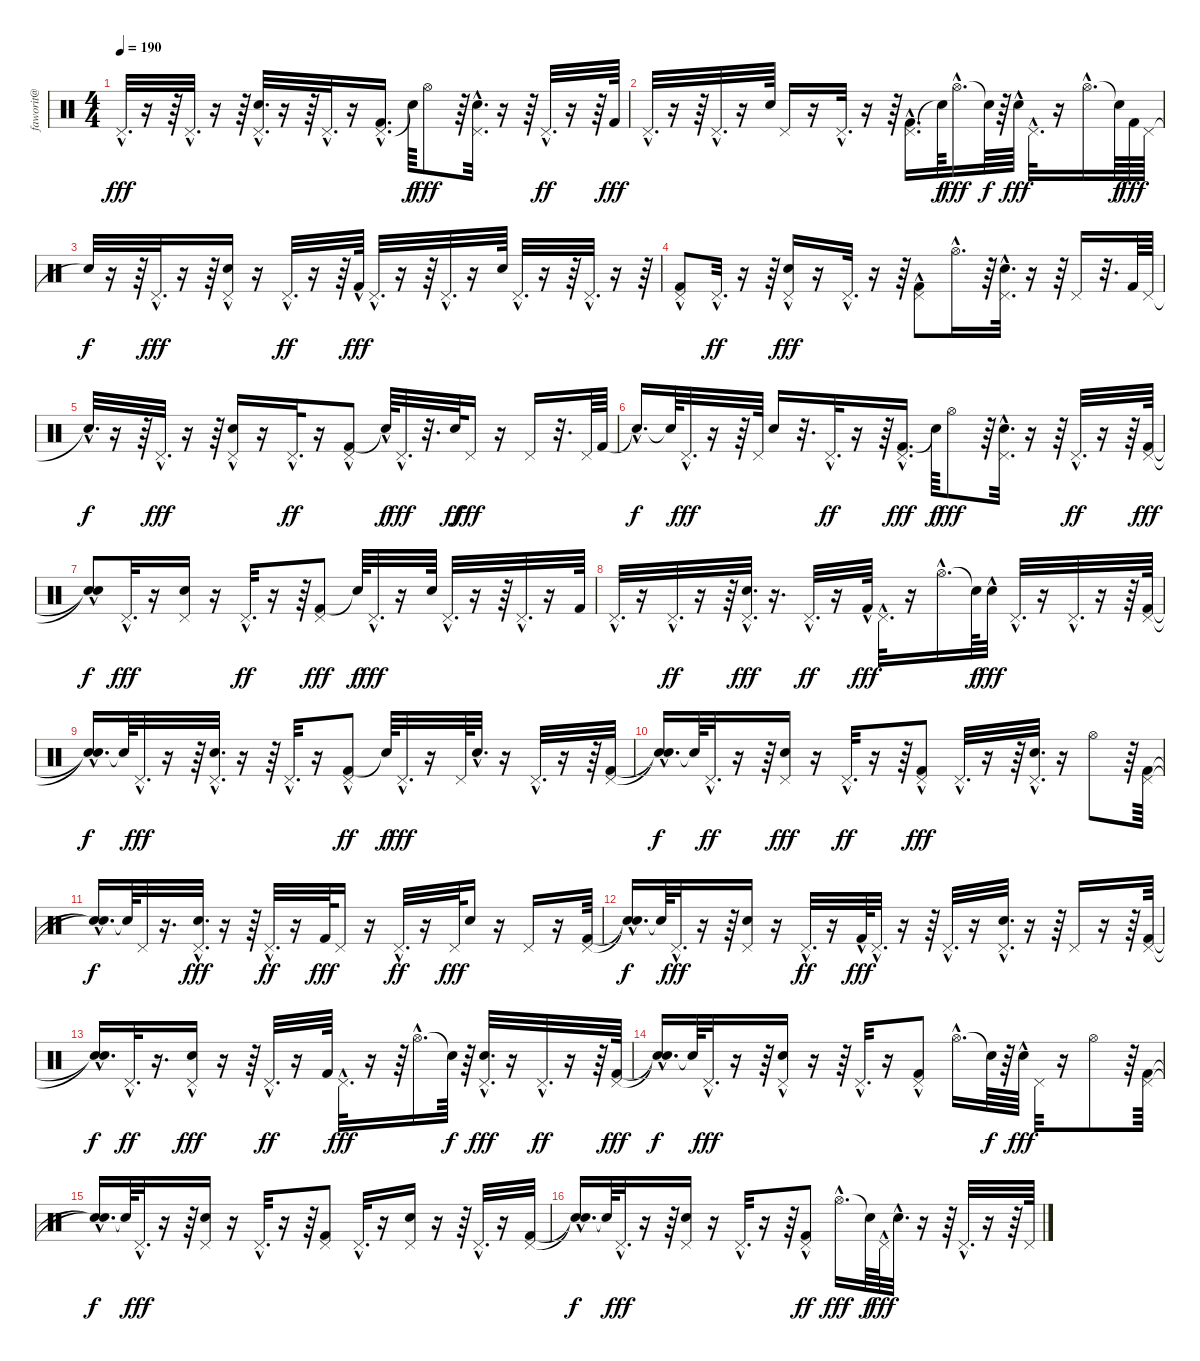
\track ("faworit@" "faworit@") {instrument percussion}
\staff {score}
\articulation defaults
\ts (4 4)
\tempo 190
\clef neutral
\ks c "Pedal Hi-Hat (hit)"{hac}.32{d dy fff}
r.16 r.64 "Pedal Hi-Hat (hit)"{hac}.32{d} r.16 r.64 ("Snare (hit) 2"{hac} "Pedal Hi-Hat (hit)"{hac}).32{d} r.16 r.64 "Pedal Hi-Hat (hit)"{hac}.32{d} r.16 ("Pedal Hi-Hat (hit)"{hac} "Kick (hit) 2"{hac}).16{d} "Snare (hit)"{t}.64{dy f} "Hi-Hat (open)".8{dy fff} r.64 ("Pedal Hi-Hat (hit)"{hac} "Snare (hit) 2"{hac}).32{d} r.16 r.64 "Pedal Hi-Hat (hit)"{hac}.32{d dy ff} r.16 r.64 "Kick (hit) 2".64{dy fff} |
"Pedal Hi-Hat (hit)"{hac}.32{d} r.16 r.64 "Pedal Hi-Hat (hit)"{hac}.32{d} r.16 "Snare (hit) 2".64 "Pedal Hi-Hat (hit)".16 r.16 "Pedal Hi-Hat (hit)"{hac}.32{d} r.16 r.64 ("Pedal Hi-Hat (hit)"{hac} "Kick (hit) 2"{hac}).16{d} "Snare (hit)"{t}.64{dy f} "Hi-Hat (open)"{hac}.16{d dy fff} "Snare (hit)"{t}.64{dy f} r.64 "Snare (hit) 2"{hac}.64{dy fff} "Pedal Hi-Hat (hit)"{hac}.32{d} r.16 "Hi-Hat (open)"{hac}.16{d} "Snare (hit)"{t}.64{dy f} "Kick (hit) 2".64{dy fff} "Pedal Hi-Hat (hit)".64 |
"Snare (hit)"{t}.32{dy f} r.16 r.64 "Pedal Hi-Hat (hit)"{hac}.32{d dy fff} r.16 r.64 ("Snare (hit) 2" "Pedal Hi-Hat (hit)"{hac}).16 r.16 "Pedal Hi-Hat (hit)"{hac}.32{d dy ff} r.16 r.64 "Kick (hit) 2"{hac}.64{dy fff} "Pedal Hi-Hat (hit)"{hac}.32{d} r.16 r.64 "Pedal Hi-Hat (hit)"{hac}.32{d} r.16 "Snare (hit) 2".64 "Pedal Hi-Hat (hit)"{hac}.32{d} r.16 r.64 "Pedal Hi-Hat (hit)"{hac}.32{d} r.16 r.64 |
("Kick (hit) 2" "Pedal Hi-Hat (hit)"{hac}).8 "Pedal Hi-Hat (hit)"{hac}.32{d dy ff} r.16 r.64 ("Snare (hit) 2" "Pedal Hi-Hat (hit)"{hac}).16{dy fff} r.16 "Pedal Hi-Hat (hit)"{hac}.32{d} r.16 r.64 ("Kick (hit) 2"{hac} "Pedal Hi-Hat (hit)"{hac}).8 "Hi-Hat (open)"{hac}.16{d} r.64 ("Pedal Hi-Hat (hit)"{hac} "Snare (hit) 2"{hac}).32{d} r.16 r.64 "Pedal Hi-Hat (hit)".16 r.32{d} "Kick (hit) 2".64 "Pedal Hi-Hat (hit)".64 |
"Snare (hit)"{hac t}.32{d dy f} r.16 r.64 "Pedal Hi-Hat (hit)"{hac}.32{d dy fff} r.16 r.64 ("Snare (hit) 2"{hac} "Pedal Hi-Hat (hit)").16 r.16 "Pedal Hi-Hat (hit)"{hac}.32{d dy ff} r.16 ("Kick (hit) 2" "Pedal Hi-Hat (hit)"{hac}).8 "Snare (hit)"{hac t}.64{dy f} "Pedal Hi-Hat (hit)"{hac}.32{d dy fff} r.32{d} "Snare (hit) 2".64{dy ff} "Pedal Hi-Hat (hit)".16{dy fff} r.16 "Pedal Hi-Hat (hit)".16 r.32{d} "Pedal Hi-Hat (hit)".64 "Kick (hit) 2".64 |
"Snare (hit)"{hac t}.16{d dy f} "Snare (hit)"{t}.64 "Pedal Hi-Hat (hit)"{hac}.32{d dy fff} r.16 r.64 "Pedal Hi-Hat (hit)".64 "Snare (hit) 2".16 r.32{d} "Pedal Hi-Hat (hit)"{hac}.32{d dy ff} r.16 r.64 ("Kick (hit) 2"{hac} "Pedal Hi-Hat (hit)"{hac}).16{d dy fff} "Snare (hit)"{t}.64{dy f} "Hi-Hat (open)".8{dy fff} r.64 ("Snare (hit) 2"{hac} "Pedal Hi-Hat (hit)"{hac}).32{d} r.16 r.64 "Pedal Hi-Hat (hit)"{hac}.32{d dy ff} r.16 r.64 ("Kick (hit) 2" "Pedal Hi-Hat (hit)").64{dy fff} |
("Snare (hit)"{hac t} "Snare (hit)"{hac t}).8{dy f} "Pedal Hi-Hat (hit)"{hac}.32{d dy fff} r.16 ("Snare (hit) 2" "Pedal Hi-Hat (hit)").16 r.16 "Pedal Hi-Hat (hit)"{hac}.32{d dy ff} r.16 r.64 ("Kick (hit) 2" "Pedal Hi-Hat (hit)").8{dy fff} "Snare (hit)"{t}.64{dy f} "Pedal Hi-Hat (hit)"{hac}.32{d dy fff} r.16 "Snare (hit) 2".64 "Pedal Hi-Hat (hit)"{hac}.32{d} r.16 r.64 "Pedal Hi-Hat (hit)"{hac}.32{d} r.16 "Kick (hit) 2".64 |
"Pedal Hi-Hat (hit)"{hac}.32{d} r.16 "Pedal Hi-Hat (hit)"{hac}.32{d dy ff} r.16 r.64 ("Pedal Hi-Hat (hit)"{hac} "Snare (hit) 2"{hac}).32{d dy fff} r.16{d} "Pedal Hi-Hat (hit)"{hac}.32{d dy ff} r.16 "Kick (hit) 2"{hac}.64{dy fff} "Pedal Hi-Hat (hit)"{hac}.32{d} r.16 "Hi-Hat (open)"{hac}.16{d} "Snare (hit)"{t}.64{dy f} "Snare (hit) 2"{hac}.32{dy fff} "Pedal Hi-Hat (hit)"{hac}.32{d} r.16 "Pedal Hi-Hat (hit)"{hac}.32{d} r.16 r.64 ("Pedal Hi-Hat (hit)" "Kick (hit) 2").64 |
("Snare (hit)"{t} "Snare (hit)"{hac t}).16{d dy f} "Snare (hit)"{t}.64 "Pedal Hi-Hat (hit)"{hac}.32{d dy fff} r.16 r.64 ("Pedal Hi-Hat (hit)"{hac} "Snare (hit) 2"{hac}).32{d} r.16 r.64 "Pedal Hi-Hat (hit)"{hac}.32{d} r.16 ("Kick (hit) 2" "Pedal Hi-Hat (hit)"{hac}).8{dy ff} "Snare (hit)"{t}.64{dy f} "Pedal Hi-Hat (hit)"{hac}.32{d dy fff} r.16 "Pedal Hi-Hat (hit)".64 "Snare (hit) 2"{hac}.32{d} r.16 "Pedal Hi-Hat (hit)"{hac}.32{d} r.16 r.64 ("Kick (hit) 2" "Pedal Hi-Hat (hit)").32 |
("Snare (hit)"{hac t} "Snare (hit)"{t}).16{d dy f} "Snare (hit)"{t}.64 "Pedal Hi-Hat (hit)"{hac}.32{d dy ff} r.16 r.64 ("Pedal Hi-Hat (hit)" "Snare (hit) 2").16{dy fff} r.16 "Pedal Hi-Hat (hit)"{hac}.32{d dy ff} r.16 r.64 ("Kick (hit) 2" "Pedal Hi-Hat (hit)"{hac}).8{dy fff} "Pedal Hi-Hat (hit)"{hac}.32{d} r.16 r.64 ("Pedal Hi-Hat (hit)"{hac} "Snare (hit) 2"{hac}).32{d} r.16 "Hi-Hat (open)".8 r.64 ("Pedal Hi-Hat (hit)" "Kick (hit) 2").64 |
("Snare (hit)"{t} "Snare (hit)"{hac t}).16{d dy f} "Snare (hit)"{t}.64 "Pedal Hi-Hat (hit)".32 r.16{d} ("Pedal Hi-Hat (hit)"{hac} "Snare (hit) 2"{hac}).32{d dy fff} r.16 r.64 "Pedal Hi-Hat (hit)"{hac}.32{d dy ff} r.16 "Kick (hit) 2".64{dy fff} "Pedal Hi-Hat (hit)".16 r.16 "Pedal Hi-Hat (hit)"{hac}.32{d dy ff} r.16 "Pedal Hi-Hat (hit)".64{dy fff} "Snare (hit) 2".16 r.16 "Pedal Hi-Hat (hit)".16 r.16 ("Kick (hit) 2" "Pedal Hi-Hat (hit)").64 |
("Snare (hit)"{hac t} "Snare (hit)"{t}).16{d dy f} "Snare (hit)"{t}.64 "Pedal Hi-Hat (hit)"{hac}.32{d dy fff} r.16 r.64 ("Pedal Hi-Hat (hit)" "Snare (hit) 2").16 r.16 "Pedal Hi-Hat (hit)"{hac}.32{d dy ff} r.16 "Kick (hit) 2"{hac}.64{dy fff} "Pedal Hi-Hat (hit)"{hac}.32{d} r.16 r.64 "Pedal Hi-Hat (hit)"{hac}.32{d} r.16 ("Snare (hit) 2"{hac} "Pedal Hi-Hat (hit)"{hac}).32{d} r.16 r.64 "Pedal Hi-Hat (hit)".16 r.16 r.64 ("Pedal Hi-Hat (hit)" "Kick (hit) 2").64 |
("Snare (hit)"{t} "Snare (hit)"{hac t}).16{d dy f} "Pedal Hi-Hat (hit)"{hac}.32{d dy ff} r.16{d} ("Pedal Hi-Hat (hit)" "Snare (hit) 2"{hac}).16{dy fff} r.16 r.64 "Pedal Hi-Hat (hit)"{hac}.32{d dy ff} r.16 "Kick (hit) 2".64 "Pedal Hi-Hat (hit)"{hac}.32{d dy fff} r.16 r.64 "Hi-Hat (open)"{hac}.16{d} "Snare (hit)"{t}.64{dy f} r.64 ("Pedal Hi-Hat (hit)"{hac} "Snare (hit) 2"{hac}).32{d dy fff} r.16 "Pedal Hi-Hat (hit)"{hac}.32{d dy ff} r.16 r.64 ("Pedal Hi-Hat (hit)" "Kick (hit) 2").64{dy fff} |
("Snare (hit)"{t} "Snare (hit)"{hac t}).16{d dy f} "Snare (hit)"{t}.64 "Pedal Hi-Hat (hit)"{hac}.32{d dy fff} r.16 r.64 ("Snare (hit) 2"{hac} "Pedal Hi-Hat (hit)").16 r.16 r.64 "Pedal Hi-Hat (hit)"{hac}.32{d} r.16 ("Kick (hit) 2" "Pedal Hi-Hat (hit)"{hac}).8 "Hi-Hat (open)"{hac}.16{d} "Snare (hit)"{t}.64{dy f} r.64 "Snare (hit) 2"{hac}.64{dy fff} "Pedal Hi-Hat (hit)".32 r.16 "Hi-Hat (open)".8 r.64 ("Kick (hit) 2" "Pedal Hi-Hat (hit)").64 |
("Snare (hit)"{hac t} "Snare (hit)"{t}).16{d dy f} "Snare (hit)"{t}.64 "Pedal Hi-Hat (hit)"{hac}.32{d dy fff} r.16 r.64 ("Pedal Hi-Hat (hit)" "Snare (hit) 2").16 r.16 "Pedal Hi-Hat (hit)"{hac}.32{d} r.16 r.64 ("Kick (hit) 2" "Pedal Hi-Hat (hit)").8 "Pedal Hi-Hat (hit)"{hac}.32{d} r.16 ("Snare (hit) 2" "Pedal Hi-Hat (hit)").16 r.16 r.64 "Pedal Hi-Hat (hit)"{hac}.32{d} r.16 ("Kick (hit) 2" "Pedal Hi-Hat (hit)").32 |
("Snare (hit)"{hac t} "Snare (hit)"{t}).16{d dy f} "Snare (hit)"{t}.64 "Pedal Hi-Hat (hit)"{hac}.32{d dy fff} r.16 r.64 ("Pedal Hi-Hat (hit)" "Snare (hit) 2").16 r.16 "Pedal Hi-Hat (hit)"{hac}.32{d} r.16 r.64 ("Pedal Hi-Hat (hit)"{hac} "Kick (hit) 2"{hac}).8{dy ff} "Hi-Hat (open)"{hac}.16{d dy fff} "Snare (hit)"{t}.64{dy f} "Pedal Hi-Hat (hit)"{hac}.64{dy fff} "Snare (hit) 2"{hac}.32{d} r.16 r.64 "Pedal Hi-Hat (hit)"{hac}.32{d} r.16 r.64 "Pedal Hi-Hat (hit)".64
